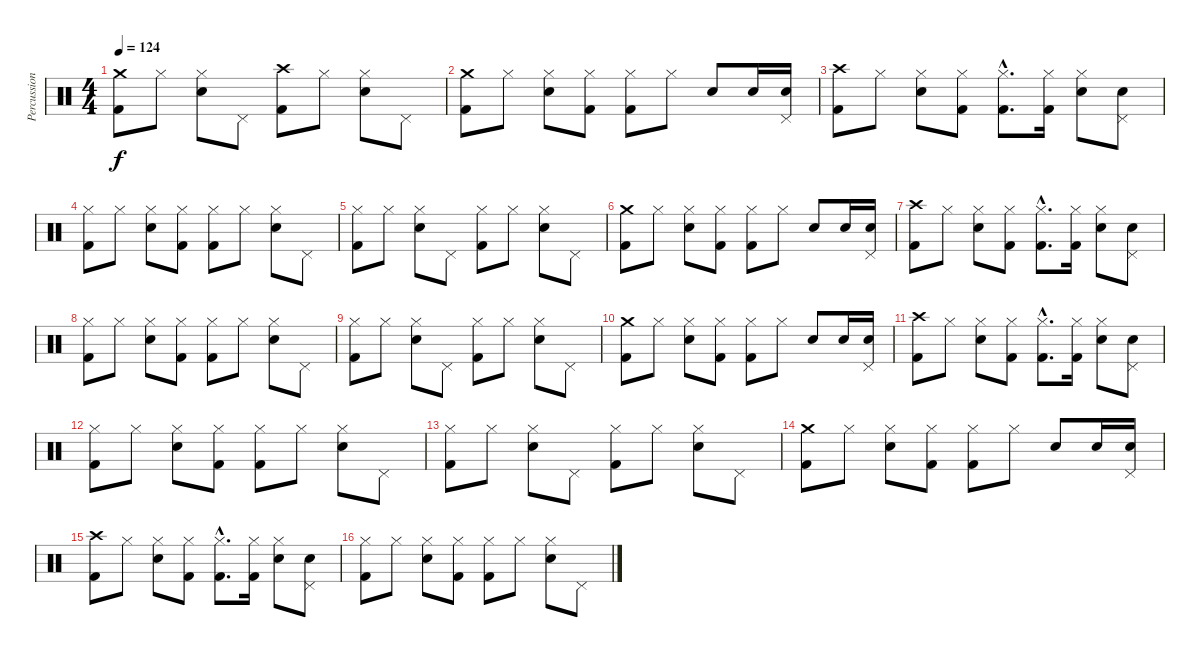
\track ("Percussions" "Percussion") {instrument percussion}
\staff {score}
\articulation defaults
\ts (4 4)
\tempo 124
\clef neutral
\ks c
("Crash medium (hit)" "Kick (hit) 2").8{dy f} "Hi-Hat (closed)".8 ("Hi-Hat (closed)" "Electric Snare (hit)").8 "Pedal Hi-Hat (hit)".8 ("Crash high (hit)" "Kick (hit) 2").8 "Hi-Hat (closed)".8 ("Hi-Hat (closed)" "Electric Snare (hit)").8 "Pedal Hi-Hat (hit)".8 |
("Crash medium (hit)" "Kick (hit) 2").8 "Hi-Hat (closed)".8 ("Hi-Hat (closed)" "Electric Snare (hit)").8 ("Hi-Hat (closed)" "Kick (hit) 2").8 ("Hi-Hat (closed)" "Kick (hit) 2").8 "Hi-Hat (closed)".8 "Electric Snare (hit)".8 "Electric Snare (hit)".16 ("Pedal Hi-Hat (hit)" "Electric Snare (hit)").16 |
("Crash high (hit)" "Kick (hit) 2").8 "Hi-Hat (closed)".8 ("Hi-Hat (closed)" "Electric Snare (hit)").8 ("Hi-Hat (closed)" "Kick (hit) 2").8 ("Hi-Hat (closed)"{hac} "Kick (hit) 2"{hac}).8{d} ("Hi-Hat (closed)" "Kick (hit) 2").16 ("Hi-Hat (closed)" "Electric Snare (hit)").8 ("Pedal Hi-Hat (hit)" "Electric Snare (hit)").8 |
("Hi-Hat (closed)" "Kick (hit) 2").8 "Hi-Hat (closed)".8 ("Hi-Hat (closed)" "Electric Snare (hit)").8 ("Hi-Hat (closed)" "Kick (hit) 2").8 ("Hi-Hat (closed)" "Kick (hit) 2").8 "Hi-Hat (closed)".8 ("Hi-Hat (closed)" "Electric Snare (hit)").8 "Pedal Hi-Hat (hit)".8 |
("Hi-Hat (closed)" "Kick (hit) 2").8 "Hi-Hat (closed)".8 ("Hi-Hat (closed)" "Electric Snare (hit)").8 "Pedal Hi-Hat (hit)".8 ("Hi-Hat (closed)" "Kick (hit) 2").8 "Hi-Hat (closed)".8 ("Hi-Hat (closed)" "Electric Snare (hit)").8 "Pedal Hi-Hat (hit)".8 |
("Crash medium (hit)" "Kick (hit) 2").8 "Hi-Hat (closed)".8 ("Hi-Hat (closed)" "Electric Snare (hit)").8 ("Hi-Hat (closed)" "Kick (hit) 2").8 ("Hi-Hat (closed)" "Kick (hit) 2").8 "Hi-Hat (closed)".8 "Electric Snare (hit)".8 "Electric Snare (hit)".16 ("Pedal Hi-Hat (hit)" "Electric Snare (hit)").16 |
("Crash high (hit)" "Kick (hit) 2").8 "Hi-Hat (closed)".8 ("Hi-Hat (closed)" "Electric Snare (hit)").8 ("Hi-Hat (closed)" "Kick (hit) 2").8 ("Hi-Hat (closed)"{hac} "Kick (hit) 2"{hac}).8{d} ("Hi-Hat (closed)" "Kick (hit) 2").16 ("Hi-Hat (closed)" "Electric Snare (hit)").8 ("Pedal Hi-Hat (hit)" "Electric Snare (hit)").8 |
("Hi-Hat (closed)" "Kick (hit) 2").8 "Hi-Hat (closed)".8 ("Hi-Hat (closed)" "Electric Snare (hit)").8 ("Hi-Hat (closed)" "Kick (hit) 2").8 ("Hi-Hat (closed)" "Kick (hit) 2").8 "Hi-Hat (closed)".8 ("Hi-Hat (closed)" "Electric Snare (hit)").8 "Pedal Hi-Hat (hit)".8 |
("Hi-Hat (closed)" "Kick (hit) 2").8 "Hi-Hat (closed)".8 ("Hi-Hat (closed)" "Electric Snare (hit)").8 "Pedal Hi-Hat (hit)".8 ("Hi-Hat (closed)" "Kick (hit) 2").8 "Hi-Hat (closed)".8 ("Hi-Hat (closed)" "Electric Snare (hit)").8 "Pedal Hi-Hat (hit)".8 |
("Crash medium (hit)" "Kick (hit) 2").8 "Hi-Hat (closed)".8 ("Hi-Hat (closed)" "Electric Snare (hit)").8 ("Hi-Hat (closed)" "Kick (hit) 2").8 ("Hi-Hat (closed)" "Kick (hit) 2").8 "Hi-Hat (closed)".8 "Electric Snare (hit)".8 "Electric Snare (hit)".16 ("Pedal Hi-Hat (hit)" "Electric Snare (hit)").16 |
("Crash high (hit)" "Kick (hit) 2").8 "Hi-Hat (closed)".8 ("Hi-Hat (closed)" "Electric Snare (hit)").8 ("Hi-Hat (closed)" "Kick (hit) 2").8 ("Hi-Hat (closed)"{hac} "Kick (hit) 2"{hac}).8{d} ("Hi-Hat (closed)" "Kick (hit) 2").16 ("Hi-Hat (closed)" "Electric Snare (hit)").8 ("Pedal Hi-Hat (hit)" "Electric Snare (hit)").8 |
("Hi-Hat (closed)" "Kick (hit) 2").8 "Hi-Hat (closed)".8 ("Hi-Hat (closed)" "Electric Snare (hit)").8 ("Hi-Hat (closed)" "Kick (hit) 2").8 ("Hi-Hat (closed)" "Kick (hit) 2").8 "Hi-Hat (closed)".8 ("Hi-Hat (closed)" "Electric Snare (hit)").8 "Pedal Hi-Hat (hit)".8 |
("Hi-Hat (closed)" "Kick (hit) 2").8 "Hi-Hat (closed)".8 ("Hi-Hat (closed)" "Electric Snare (hit)").8 "Pedal Hi-Hat (hit)".8 ("Hi-Hat (closed)" "Kick (hit) 2").8 "Hi-Hat (closed)".8 ("Hi-Hat (closed)" "Electric Snare (hit)").8 "Pedal Hi-Hat (hit)".8 |
("Crash medium (hit)" "Kick (hit) 2").8 "Hi-Hat (closed)".8 ("Hi-Hat (closed)" "Electric Snare (hit)").8 ("Hi-Hat (closed)" "Kick (hit) 2").8 ("Hi-Hat (closed)" "Kick (hit) 2").8 "Hi-Hat (closed)".8 "Electric Snare (hit)".8 "Electric Snare (hit)".16 ("Pedal Hi-Hat (hit)" "Electric Snare (hit)").16 |
("Crash high (hit)" "Kick (hit) 2").8 "Hi-Hat (closed)".8 ("Hi-Hat (closed)" "Electric Snare (hit)").8 ("Hi-Hat (closed)" "Kick (hit) 2").8 ("Hi-Hat (closed)"{hac} "Kick (hit) 2"{hac}).8{d} ("Hi-Hat (closed)" "Kick (hit) 2").16 ("Hi-Hat (closed)" "Electric Snare (hit)").8 ("Pedal Hi-Hat (hit)" "Electric Snare (hit)").8 |
("Hi-Hat (closed)" "Kick (hit) 2").8 "Hi-Hat (closed)".8 ("Hi-Hat (closed)" "Electric Snare (hit)").8 ("Hi-Hat (closed)" "Kick (hit) 2").8 ("Hi-Hat (closed)" "Kick (hit) 2").8 "Hi-Hat (closed)".8 ("Hi-Hat (closed)" "Electric Snare (hit)").8 "Pedal Hi-Hat (hit)".8
